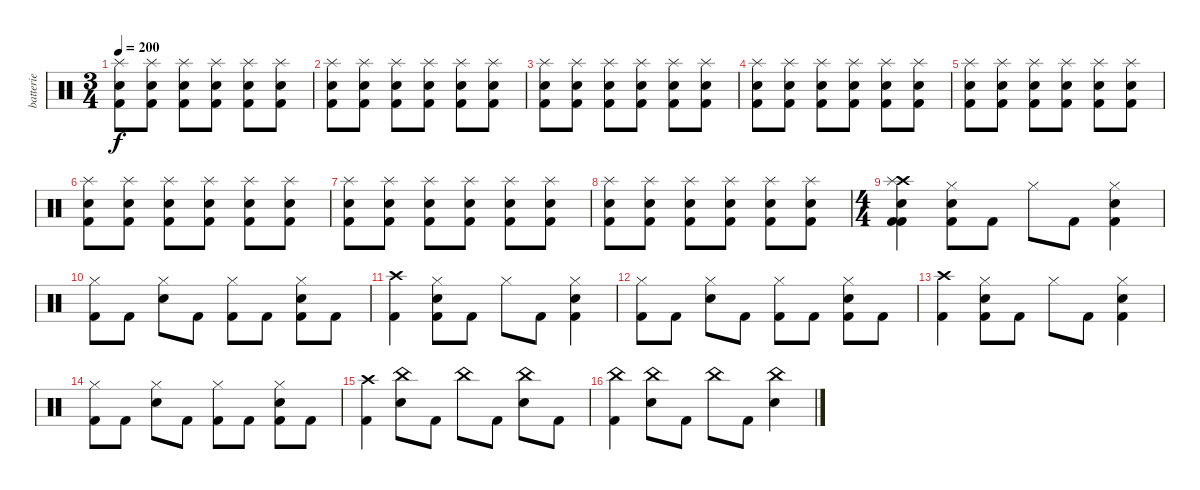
\track ("batterie" "batterie") {instrument percussion}
\staff {score}
\articulation defaults
\ts (3 4)
\tempo 200
\clef neutral
\ks c
("Kick (hit) 2" "Electric Snare (hit)" "Splash (hit)").8{dy f} ("Kick (hit) 2" "Electric Snare (hit)" "Splash (hit)").8 ("Kick (hit) 2" "Electric Snare (hit)" "Splash (hit)").8 ("Kick (hit) 2" "Electric Snare (hit)" "Splash (hit)").8 ("Kick (hit) 2" "Electric Snare (hit)" "Splash (hit)").8 ("Kick (hit) 2" "Electric Snare (hit)" "Splash (hit)").8 |
("Kick (hit) 2" "Electric Snare (hit)" "Splash (hit)").8 ("Kick (hit) 2" "Electric Snare (hit)" "Splash (hit)").8 ("Kick (hit) 2" "Electric Snare (hit)" "Splash (hit)").8 ("Kick (hit) 2" "Electric Snare (hit)" "Splash (hit)").8 ("Kick (hit) 2" "Electric Snare (hit)" "Splash (hit)").8 ("Kick (hit) 2" "Electric Snare (hit)" "Splash (hit)").8 |
("Kick (hit) 2" "Electric Snare (hit)" "Splash (hit)").8 ("Kick (hit) 2" "Electric Snare (hit)" "Splash (hit)").8 ("Kick (hit) 2" "Electric Snare (hit)" "Splash (hit)").8 ("Kick (hit) 2" "Electric Snare (hit)" "Splash (hit)").8 ("Kick (hit) 2" "Electric Snare (hit)" "Splash (hit)").8 ("Kick (hit) 2" "Electric Snare (hit)" "Splash (hit)").8 |
("Kick (hit) 2" "Electric Snare (hit)" "Splash (hit)").8 ("Kick (hit) 2" "Electric Snare (hit)" "Splash (hit)").8 ("Kick (hit) 2" "Electric Snare (hit)" "Splash (hit)").8 ("Kick (hit) 2" "Electric Snare (hit)" "Splash (hit)").8 ("Kick (hit) 2" "Electric Snare (hit)" "Splash (hit)").8 ("Kick (hit) 2" "Electric Snare (hit)" "Splash (hit)").8 |
("Kick (hit) 2" "Electric Snare (hit)" "Splash (hit)").8 ("Kick (hit) 2" "Electric Snare (hit)" "Splash (hit)").8 ("Kick (hit) 2" "Electric Snare (hit)" "Splash (hit)").8 ("Kick (hit) 2" "Electric Snare (hit)" "Splash (hit)").8 ("Kick (hit) 2" "Electric Snare (hit)" "Splash (hit)").8 ("Kick (hit) 2" "Electric Snare (hit)" "Splash (hit)").8 |
("Kick (hit) 2" "Electric Snare (hit)" "Splash (hit)").8 ("Kick (hit) 2" "Electric Snare (hit)" "Splash (hit)").8 ("Kick (hit) 2" "Electric Snare (hit)" "Splash (hit)").8 ("Kick (hit) 2" "Electric Snare (hit)" "Splash (hit)").8 ("Kick (hit) 2" "Electric Snare (hit)" "Splash (hit)").8 ("Kick (hit) 2" "Electric Snare (hit)" "Splash (hit)").8 |
("Kick (hit) 2" "Electric Snare (hit)" "Splash (hit)").8 ("Kick (hit) 2" "Electric Snare (hit)" "Splash (hit)").8 ("Kick (hit) 2" "Electric Snare (hit)" "Splash (hit)").8 ("Kick (hit) 2" "Electric Snare (hit)" "Splash (hit)").8 ("Kick (hit) 2" "Electric Snare (hit)" "Splash (hit)").8 ("Kick (hit) 2" "Electric Snare (hit)" "Splash (hit)").8 |
("Kick (hit) 2" "Electric Snare (hit)" "Splash (hit)").8 ("Kick (hit) 2" "Electric Snare (hit)" "Splash (hit)").8 ("Kick (hit) 2" "Electric Snare (hit)" "Splash (hit)").8 ("Kick (hit) 2" "Electric Snare (hit)" "Splash (hit)").8 ("Kick (hit) 2" "Electric Snare (hit)" "Splash (hit)").8 ("Kick (hit) 2" "Electric Snare (hit)" "Splash (hit)").8 |
\ts (4 4)
("Kick (hit) 2" "Kick (hit) 2" "Electric Snare (hit)" "Crash high (hit)" "Splash (hit)").4 ("Kick (hit) 2" "Electric Snare (hit)" "Hi-Hat (closed)").8 "Kick (hit) 2".8 "Hi-Hat (closed)".8 "Kick (hit) 2".8 ("Kick (hit) 2" "Electric Snare (hit)" "Hi-Hat (closed)").4 |
("Kick (hit) 2" "Hi-Hat (closed)").8 "Kick (hit) 2".8 ("Electric Snare (hit)" "Hi-Hat (closed)").8 "Kick (hit) 2".8 ("Kick (hit) 2" "Hi-Hat (closed)").8 "Kick (hit) 2".8 ("Kick (hit) 2" "Electric Snare (hit)" "Hi-Hat (closed)").8 "Kick (hit) 2".8 |
("Kick (hit) 2" "Crash high (hit)").4 ("Kick (hit) 2" "Electric Snare (hit)" "Hi-Hat (closed)").8 "Kick (hit) 2".8 "Hi-Hat (closed)".8 "Kick (hit) 2".8 ("Kick (hit) 2" "Electric Snare (hit)" "Hi-Hat (closed)").4 |
("Kick (hit) 2" "Hi-Hat (closed)").8 "Kick (hit) 2".8 ("Electric Snare (hit)" "Hi-Hat (closed)").8 "Kick (hit) 2".8 ("Kick (hit) 2" "Hi-Hat (closed)").8 "Kick (hit) 2".8 ("Kick (hit) 2" "Electric Snare (hit)" "Hi-Hat (closed)").8 "Kick (hit) 2".8 |
("Kick (hit) 2" "Crash high (hit)").4 ("Kick (hit) 2" "Electric Snare (hit)" "Hi-Hat (closed)").8 "Kick (hit) 2".8 "Hi-Hat (closed)".8 "Kick (hit) 2".8 ("Kick (hit) 2" "Electric Snare (hit)" "Hi-Hat (closed)").4 |
("Kick (hit) 2" "Hi-Hat (closed)").8 "Kick (hit) 2".8 ("Electric Snare (hit)" "Hi-Hat (closed)").8 "Kick (hit) 2".8 ("Kick (hit) 2" "Hi-Hat (closed)").8 "Kick (hit) 2".8 ("Kick (hit) 2" "Electric Snare (hit)" "Hi-Hat (closed)").8 "Kick (hit) 2".8 |
("Kick (hit) 2" "Crash high (hit)").4 ("Electric Snare (hit)" "China (hit)").8 "Kick (hit) 2".8 "China (hit)".8 "Kick (hit) 2".8 ("Electric Snare (hit)" "China (hit)").8 "Kick (hit) 2".8 |
("Kick (hit) 2" "China (hit)").4 ("Electric Snare (hit)" "China (hit)").8 "Kick (hit) 2".8 "China (hit)".8 "Kick (hit) 2".8 ("Electric Snare (hit)" "China (hit)").4
